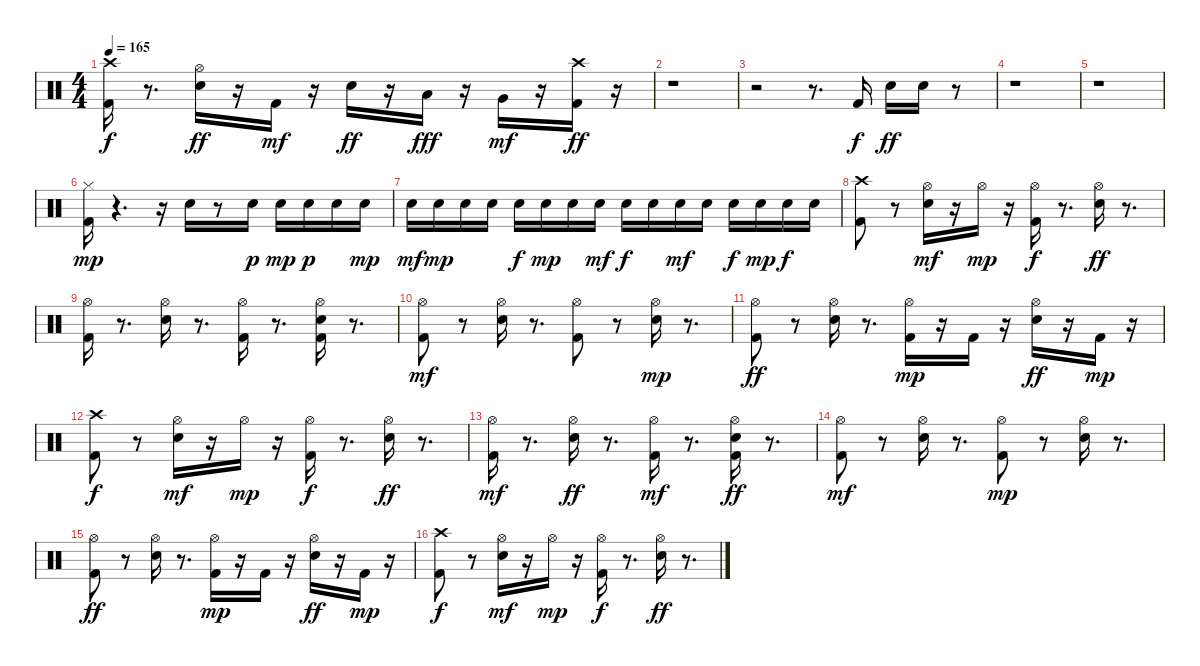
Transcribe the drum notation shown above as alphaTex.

\track "" {instrument percussion}
\staff {score}
\articulation defaults
\ts (4 4)
\tempo 165
\clef neutral
\ks c
("Crash high (hit)" "Kick (hit) 2").16{dy f} r.8{d} ("Electric Snare (hit)" "Hi-Hat (open)").16{dy ff} r.16 "Kick (hit) 2".16{dy mf} r.16 "Electric Snare (hit)".16{dy ff} r.16 "Low Tom (hit)".16{dy fff} r.16 "Very Low Tom (hit)".16{dy mf} r.16 ("Kick (hit) 2" "Crash high (hit)").16{dy ff} r.16 |
r.1 |
r.2 r.8{d} "Kick (hit) 2".16{dy f} "Electric Snare (hit)".16{dy ff} "Electric Snare (hit)".16 r.8 |
r.1 |
r.1 |
("Kick (hit) 2" "Hi-Hat (closed)").16{dy mp} r.4{d} r.16 "Electric Snare (hit)".16 r.8 "Electric Snare (hit)".16{dy p} "Electric Snare (hit)".16{dy mp} "Electric Snare (hit)".16{dy p} "Electric Snare (hit)".16 "Electric Snare (hit)".16{dy mp} |
"Electric Snare (hit)".16{dy mf} "Electric Snare (hit)".16{dy mp} "Electric Snare (hit)".16 "Electric Snare (hit)".16 "Electric Snare (hit)".16{dy f} "Electric Snare (hit)".16{dy mp} "Electric Snare (hit)".16 "Electric Snare (hit)".16{dy mf} "Electric Snare (hit)".16{dy f} "Electric Snare (hit)".16 "Electric Snare (hit)".16{dy mf} "Electric Snare (hit)".16 "Electric Snare (hit)".16{dy f} "Electric Snare (hit)".16{dy mp} "Electric Snare (hit)".16{dy f} "Electric Snare (hit)".16 |
("Crash high (hit)" "Kick (hit) 2").8 r.8 ("Hi-Hat (open)" "Electric Snare (hit)").16{dy mf} r.16 "Hi-Hat (open)".16{dy mp} r.16 ("Kick (hit) 2" "Hi-Hat (open)").16{dy f} r.8{d} ("Electric Snare (hit)" "Hi-Hat (open)").16{dy ff} r.8{d} |
("Kick (hit) 2" "Hi-Hat (open)").16 r.8{d} ("Hi-Hat (open)" "Electric Snare (hit)").16 r.8{d} ("Kick (hit) 2" "Hi-Hat (open)").16 r.8{d} ("Kick (hit) 2" "Electric Snare (hit)" "Hi-Hat (open)").16 r.8{d} |
("Hi-Hat (open)" "Kick (hit) 2").8{dy mf} r.8 ("Hi-Hat (open)" "Electric Snare (hit)").16 r.8{d} ("Hi-Hat (open)" "Kick (hit) 2").8 r.8 ("Hi-Hat (open)" "Electric Snare (hit)").16{dy mp} r.8{d} |
("Kick (hit) 2" "Hi-Hat (open)").8{dy ff} r.8 ("Electric Snare (hit)" "Hi-Hat (open)").16 r.8{d} ("Kick (hit) 2" "Hi-Hat (open)").16{dy mp} r.16 "Kick (hit) 2".16 r.16 ("Hi-Hat (open)" "Electric Snare (hit)").16{dy ff} r.16 "Kick (hit) 2".16{dy mp} r.16 |
("Kick (hit) 2" "Crash high (hit)").8{dy f} r.8 ("Hi-Hat (open)" "Electric Snare (hit)").16{dy mf} r.16 "Hi-Hat (open)".16{dy mp} r.16 ("Hi-Hat (open)" "Kick (hit) 2").16{dy f} r.8{d} ("Electric Snare (hit)" "Hi-Hat (open)").16{dy ff} r.8{d} |
("Hi-Hat (open)" "Kick (hit) 2").16{dy mf} r.8{d} ("Electric Snare (hit)" "Hi-Hat (open)").16{dy ff} r.8{d} ("Hi-Hat (open)" "Kick (hit) 2").16{dy mf} r.8{d} ("Electric Snare (hit)" "Kick (hit) 2" "Hi-Hat (open)").16{dy ff} r.8{d} |
("Hi-Hat (open)" "Kick (hit) 2").8{dy mf} r.8 ("Hi-Hat (open)" "Electric Snare (hit)").16 r.8{d} ("Kick (hit) 2" "Hi-Hat (open)").8{dy mp} r.8 ("Hi-Hat (open)" "Electric Snare (hit)").16 r.8{d} |
("Kick (hit) 2" "Hi-Hat (open)").8{dy ff} r.8 ("Hi-Hat (open)" "Electric Snare (hit)").16 r.8{d} ("Hi-Hat (open)" "Kick (hit) 2").16{dy mp} r.16 "Kick (hit) 2".16 r.16 ("Hi-Hat (open)" "Electric Snare (hit)").16{dy ff} r.16 "Kick (hit) 2".16{dy mp} r.16 |
("Crash high (hit)" "Kick (hit) 2").8{dy f} r.8 ("Hi-Hat (open)" "Electric Snare (hit)").16{dy mf} r.16 "Hi-Hat (open)".16{dy mp} r.16 ("Hi-Hat (open)" "Kick (hit) 2").16{dy f} r.8{d} ("Electric Snare (hit)" "Hi-Hat (open)").16{dy ff} r.8{d}
